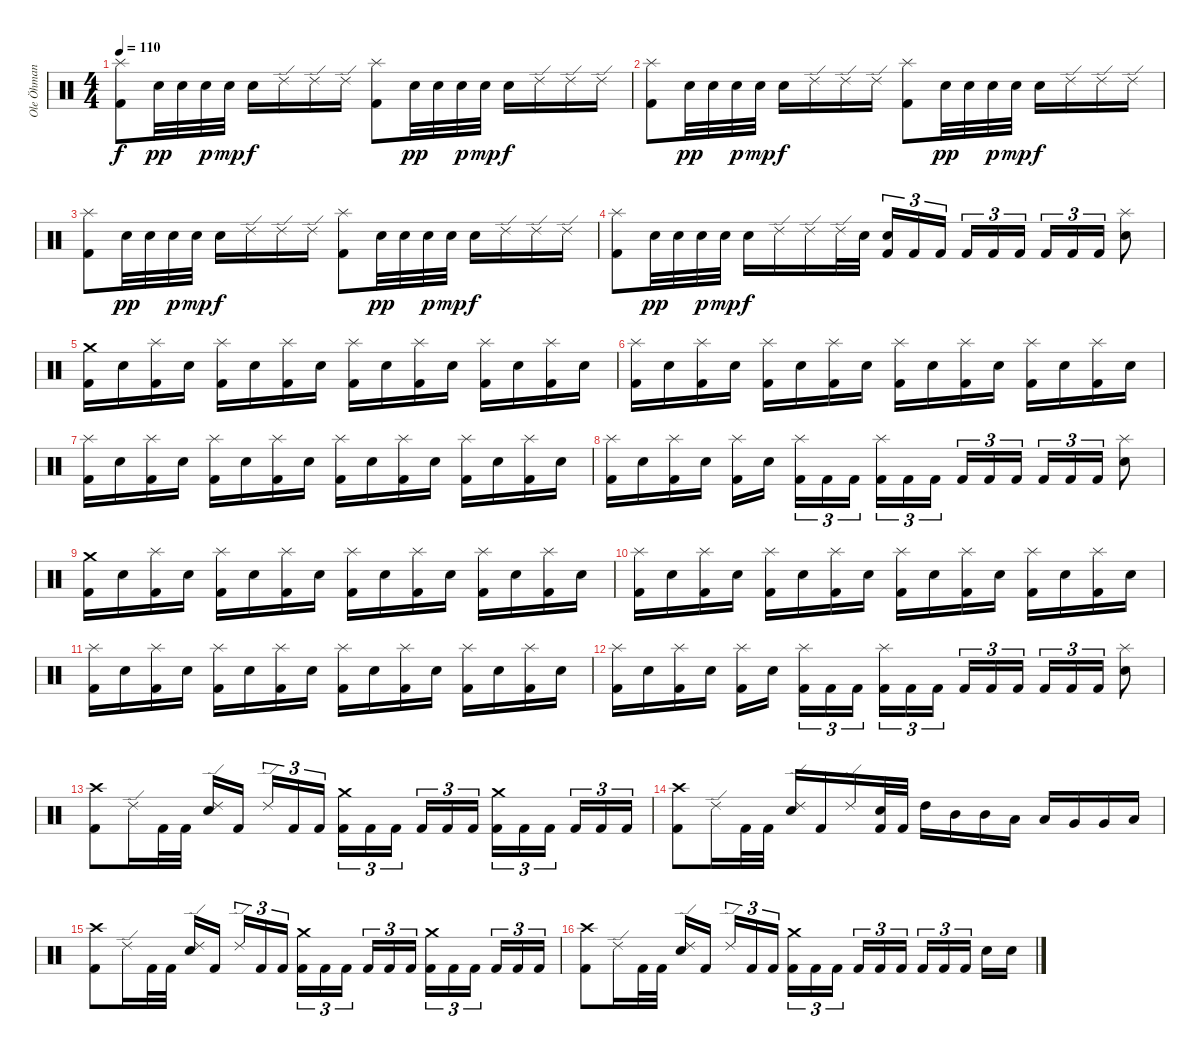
\track ("Ole Öhman" "Ole Öhman") {instrument percussion}
\staff {score}
\articulation defaults
\ts (4 4)
\tempo 110
\clef neutral
\ks c
("Splash (hit)" "Kick (hit) 2").8{dy f} "Electric Snare (hit)".32{dy pp} "Electric Snare (hit)".32 "Electric Snare (hit)".32{dy p} "Electric Snare (hit)".32{dy mp} "Electric Snare (hit)".16{dy f} "Ride (edge) 2".16 "Ride (edge) 2".16 "Ride (edge) 2".16 ("Splash (hit)" "Kick (hit) 2").8 "Electric Snare (hit)".32{dy pp} "Electric Snare (hit)".32 "Electric Snare (hit)".32{dy p} "Electric Snare (hit)".32{dy mp} "Electric Snare (hit)".16{dy f} "Ride (edge) 2".16 "Ride (edge) 2".16 "Ride (edge) 2".16 |
("Splash (hit)" "Kick (hit) 2").8 "Electric Snare (hit)".32{dy pp} "Electric Snare (hit)".32 "Electric Snare (hit)".32{dy p} "Electric Snare (hit)".32{dy mp} "Electric Snare (hit)".16{dy f} "Ride (edge) 2".16 "Ride (edge) 2".16 "Ride (edge) 2".16 ("Splash (hit)" "Kick (hit) 2").8 "Electric Snare (hit)".32{dy pp} "Electric Snare (hit)".32 "Electric Snare (hit)".32{dy p} "Electric Snare (hit)".32{dy mp} "Electric Snare (hit)".16{dy f} "Ride (edge) 2".16 "Ride (edge) 2".16 "Ride (edge) 2".16 |
("Splash (hit)" "Kick (hit) 2").8 "Electric Snare (hit)".32{dy pp} "Electric Snare (hit)".32 "Electric Snare (hit)".32{dy p} "Electric Snare (hit)".32{dy mp} "Electric Snare (hit)".16{dy f} "Ride (edge) 2".16 "Ride (edge) 2".16 "Ride (edge) 2".16 ("Splash (hit)" "Kick (hit) 2").8 "Electric Snare (hit)".32{dy pp} "Electric Snare (hit)".32 "Electric Snare (hit)".32{dy p} "Electric Snare (hit)".32{dy mp} "Electric Snare (hit)".16{dy f} "Ride (edge) 2".16 "Ride (edge) 2".16 "Ride (edge) 2".16 |
("Splash (hit)" "Kick (hit) 2").8 "Electric Snare (hit)".32{dy pp} "Electric Snare (hit)".32 "Electric Snare (hit)".32{dy p} "Electric Snare (hit)".32{dy mp} "Electric Snare (hit)".16{dy f} "Ride (edge) 2".16 "Ride (edge) 2".16 "Ride (edge) 2".32 "Electric Snare (hit)".32 ("Electric Snare (hit)" "Kick (hit) 2").16{tu (3 2)} "Kick (hit) 2".16{tu (3 2)} "Kick (hit) 2".16{tu (3 2) beam splitsecondary} "Kick (hit) 2".16{tu (3 2)} "Kick (hit) 2".16{tu (3 2)} "Kick (hit) 2".16{tu (3 2)} "Kick (hit) 2".16{tu (3 2)} "Kick (hit) 2".16{tu (3 2)} "Kick (hit) 2".16{tu (3 2)} ("Splash (hit)" "Electric Snare (hit)").8 |
("Crash medium (hit)" "Kick (hit) 2").16 "Electric Snare (hit)".16 ("Splash (hit)" "Kick (hit) 2").16 "Electric Snare (hit)".16 ("Splash (hit)" "Kick (hit) 2").16 "Electric Snare (hit)".16 ("Splash (hit)" "Kick (hit) 2").16 "Electric Snare (hit)".16 ("Splash (hit)" "Kick (hit) 2").16 "Electric Snare (hit)".16 ("Splash (hit)" "Kick (hit) 2").16 "Electric Snare (hit)".16 ("Splash (hit)" "Kick (hit) 2").16 "Electric Snare (hit)".16 ("Splash (hit)" "Kick (hit) 2").16 "Electric Snare (hit)".16 |
("Splash (hit)" "Kick (hit) 2").16 "Electric Snare (hit)".16 ("Splash (hit)" "Kick (hit) 2").16 "Electric Snare (hit)".16 ("Splash (hit)" "Kick (hit) 2").16 "Electric Snare (hit)".16 ("Splash (hit)" "Kick (hit) 2").16 "Electric Snare (hit)".16 ("Splash (hit)" "Kick (hit) 2").16 "Electric Snare (hit)".16 ("Splash (hit)" "Kick (hit) 2").16 "Electric Snare (hit)".16 ("Splash (hit)" "Kick (hit) 2").16 "Electric Snare (hit)".16 ("Splash (hit)" "Kick (hit) 2").16 "Electric Snare (hit)".16 |
("Splash (hit)" "Kick (hit) 2").16 "Electric Snare (hit)".16 ("Splash (hit)" "Kick (hit) 2").16 "Electric Snare (hit)".16 ("Splash (hit)" "Kick (hit) 2").16 "Electric Snare (hit)".16 ("Splash (hit)" "Kick (hit) 2").16 "Electric Snare (hit)".16 ("Splash (hit)" "Kick (hit) 2").16 "Electric Snare (hit)".16 ("Splash (hit)" "Kick (hit) 2").16 "Electric Snare (hit)".16 ("Splash (hit)" "Kick (hit) 2").16 "Electric Snare (hit)".16 ("Splash (hit)" "Kick (hit) 2").16 "Electric Snare (hit)".16 |
("Splash (hit)" "Kick (hit) 2").16 "Electric Snare (hit)".16 ("Splash (hit)" "Kick (hit) 2").16 "Electric Snare (hit)".16 ("Splash (hit)" "Kick (hit) 2").16 "Electric Snare (hit)".16{beam splitsecondary} ("Splash (hit)" "Kick (hit) 2").16{tu (3 2)} "Kick (hit) 2".16{tu (3 2)} "Kick (hit) 2".16{tu (3 2)} ("Splash (hit)" "Kick (hit) 2").16{tu (3 2)} "Kick (hit) 2".16{tu (3 2)} "Kick (hit) 2".16{tu (3 2) beam splitsecondary} "Kick (hit) 2".16{tu (3 2)} "Kick (hit) 2".16{tu (3 2)} "Kick (hit) 2".16{tu (3 2)} "Kick (hit) 2".16{tu (3 2)} "Kick (hit) 2".16{tu (3 2)} "Kick (hit) 2".16{tu (3 2)} ("Splash (hit)" "Electric Snare (hit)").8 |
("Crash medium (hit)" "Kick (hit) 2").16 "Electric Snare (hit)".16 ("Splash (hit)" "Kick (hit) 2").16 "Electric Snare (hit)".16 ("Splash (hit)" "Kick (hit) 2").16 "Electric Snare (hit)".16 ("Splash (hit)" "Kick (hit) 2").16 "Electric Snare (hit)".16 ("Splash (hit)" "Kick (hit) 2").16 "Electric Snare (hit)".16 ("Splash (hit)" "Kick (hit) 2").16 "Electric Snare (hit)".16 ("Splash (hit)" "Kick (hit) 2").16 "Electric Snare (hit)".16 ("Splash (hit)" "Kick (hit) 2").16 "Electric Snare (hit)".16 |
("Splash (hit)" "Kick (hit) 2").16 "Electric Snare (hit)".16 ("Splash (hit)" "Kick (hit) 2").16 "Electric Snare (hit)".16 ("Splash (hit)" "Kick (hit) 2").16 "Electric Snare (hit)".16 ("Splash (hit)" "Kick (hit) 2").16 "Electric Snare (hit)".16 ("Splash (hit)" "Kick (hit) 2").16 "Electric Snare (hit)".16 ("Splash (hit)" "Kick (hit) 2").16 "Electric Snare (hit)".16 ("Splash (hit)" "Kick (hit) 2").16 "Electric Snare (hit)".16 ("Splash (hit)" "Kick (hit) 2").16 "Electric Snare (hit)".16 |
("Splash (hit)" "Kick (hit) 2").16 "Electric Snare (hit)".16 ("Splash (hit)" "Kick (hit) 2").16 "Electric Snare (hit)".16 ("Splash (hit)" "Kick (hit) 2").16 "Electric Snare (hit)".16 ("Splash (hit)" "Kick (hit) 2").16 "Electric Snare (hit)".16 ("Splash (hit)" "Kick (hit) 2").16 "Electric Snare (hit)".16 ("Splash (hit)" "Kick (hit) 2").16 "Electric Snare (hit)".16 ("Splash (hit)" "Kick (hit) 2").16 "Electric Snare (hit)".16 ("Splash (hit)" "Kick (hit) 2").16 "Electric Snare (hit)".16 |
("Splash (hit)" "Kick (hit) 2").16 "Electric Snare (hit)".16 ("Splash (hit)" "Kick (hit) 2").16 "Electric Snare (hit)".16 ("Splash (hit)" "Kick (hit) 2").16 "Electric Snare (hit)".16{beam splitsecondary} ("Splash (hit)" "Kick (hit) 2").16{tu (3 2)} "Kick (hit) 2".16{tu (3 2)} "Kick (hit) 2".16{tu (3 2)} ("Splash (hit)" "Kick (hit) 2").16{tu (3 2)} "Kick (hit) 2".16{tu (3 2)} "Kick (hit) 2".16{tu (3 2) beam splitsecondary} "Kick (hit) 2".16{tu (3 2)} "Kick (hit) 2".16{tu (3 2)} "Kick (hit) 2".16{tu (3 2)} "Kick (hit) 2".16{tu (3 2)} "Kick (hit) 2".16{tu (3 2)} "Kick (hit) 2".16{tu (3 2)} ("Splash (hit)" "Electric Snare (hit)").8 |
("Crash high (hit)" "Kick (hit) 2").8 "Ride (edge) 2".16 "Kick (hit) 2".32 "Kick (hit) 2".32 ("Ride (edge) 2" "Electric Snare (hit)").16 "Kick (hit) 2".16{beam splitsecondary} "Ride (edge) 2".16{tu (3 2)} "Kick (hit) 2".16{tu (3 2)} "Kick (hit) 2".16{tu (3 2)} ("Crash medium (hit)" "Kick (hit) 2").16{tu (3 2)} "Kick (hit) 2".16{tu (3 2)} "Kick (hit) 2".16{tu (3 2) beam splitsecondary} "Kick (hit) 2".16{tu (3 2)} "Kick (hit) 2".16{tu (3 2)} "Kick (hit) 2".16{tu (3 2)} ("Crash medium (hit)" "Kick (hit) 2").16{tu (3 2)} "Kick (hit) 2".16{tu (3 2)} "Kick (hit) 2".16{tu (3 2) beam splitsecondary} "Kick (hit) 2".16{tu (3 2)} "Kick (hit) 2".16{tu (3 2)} "Kick (hit) 2".16{tu (3 2)} |
("Crash high (hit)" "Kick (hit) 2").8 "Ride (edge) 2".16 "Kick (hit) 2".32 "Kick (hit) 2".32 ("Ride (edge) 2" "Electric Snare (hit)").16 "Kick (hit) 2".16 "Ride (edge) 2".16 ("Electric Snare (hit)" "Kick (hit) 2").32 "Kick (hit) 2".32 "High Tom (hit)".16 "Mid Tom (hit)".16 "Mid Tom (hit)".16 "Low Tom (hit)".16 "Low Tom (hit)".16 "Very Low Tom (hit)".16 "Very Low Tom (hit)".16 "Low Floor Tom (hit)".16 |
("Crash high (hit)" "Kick (hit) 2").8 "Ride (edge) 2".16 "Kick (hit) 2".32 "Kick (hit) 2".32 ("Ride (edge) 2" "Electric Snare (hit)").16 "Kick (hit) 2".16{beam splitsecondary} "Ride (edge) 2".16{tu (3 2)} "Kick (hit) 2".16{tu (3 2)} "Kick (hit) 2".16{tu (3 2)} ("Crash medium (hit)" "Kick (hit) 2").16{tu (3 2)} "Kick (hit) 2".16{tu (3 2)} "Kick (hit) 2".16{tu (3 2) beam splitsecondary} "Kick (hit) 2".16{tu (3 2)} "Kick (hit) 2".16{tu (3 2)} "Kick (hit) 2".16{tu (3 2)} ("Crash medium (hit)" "Kick (hit) 2").16{tu (3 2)} "Kick (hit) 2".16{tu (3 2)} "Kick (hit) 2".16{tu (3 2) beam splitsecondary} "Kick (hit) 2".16{tu (3 2)} "Kick (hit) 2".16{tu (3 2)} "Kick (hit) 2".16{tu (3 2)} |
("Crash high (hit)" "Kick (hit) 2").8 "Ride (edge) 2".16 "Kick (hit) 2".32 "Kick (hit) 2".32 ("Ride (edge) 2" "Electric Snare (hit)").16 "Kick (hit) 2".16{beam splitsecondary} "Ride (edge) 2".16{tu (3 2)} "Kick (hit) 2".16{tu (3 2)} "Kick (hit) 2".16{tu (3 2)} ("Crash medium (hit)" "Kick (hit) 2").16{tu (3 2)} "Kick (hit) 2".16{tu (3 2)} "Kick (hit) 2".16{tu (3 2) beam splitsecondary} "Kick (hit) 2".16{tu (3 2)} "Kick (hit) 2".16{tu (3 2)} "Kick (hit) 2".16{tu (3 2)} "Kick (hit) 2".16{tu (3 2)} "Kick (hit) 2".16{tu (3 2)} "Kick (hit) 2".16{tu (3 2) beam splitsecondary} "Electric Snare (hit)".16 "Electric Snare (hit)".16
